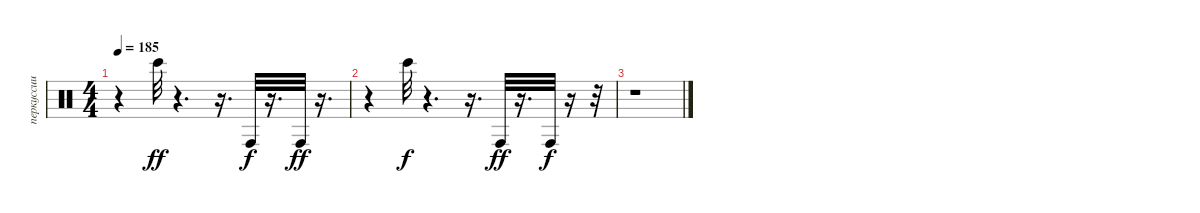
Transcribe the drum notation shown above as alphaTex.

\track ("перкуссии" "перкуссии") {instrument percussion}
\staff {score}
\articulation defaults
\ts (4 4)
\tempo 185
\clef neutral
\ks c
r.4{dy f} "Bongo High (hit)".32{dy ff} r.4{d} r.16{d} "Conga high (hit)".32{dy f} r.16{d} "Conga high (hit)".32{dy ff} r.16{d} |
r.4 "Bongo High (hit)".32{dy f} r.4{d} r.16{d} "Conga high (hit)".32{dy ff} r.16{d} "Conga high (hit)".32{dy f} r.16 r.32 |
r.1
